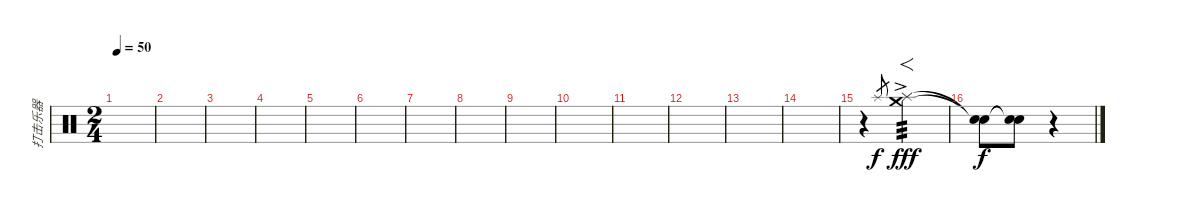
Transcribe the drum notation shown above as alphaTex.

\track ("打击乐器" "打击乐器") {instrument percussion}
\staff {score}
\articulation defaults
\ts (2 4)
\tempo 50
\clef neutral
\ks c
|
|
|
|
|
|
|
|
|
|
|
|
|
|
r.4 "Splash (hit)"{h}.8{gr} ("Splash (hit)"{ac} "Crash medium (hit)").4{f tp 3 dy fff} |
("Snare (hit)"{t} "Snare (hit)"{t}).8{dy f} ("Snare (hit)"{t} "Snare (hit)"{t}).8{volume 11} r.4
